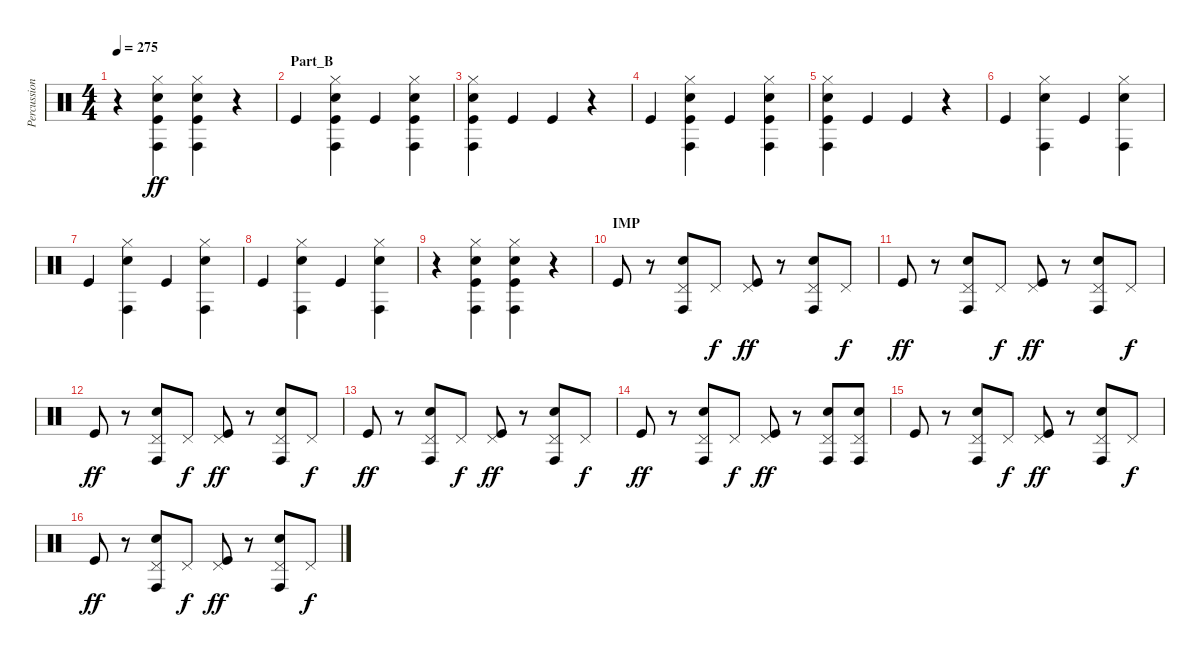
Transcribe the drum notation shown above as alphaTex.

\track ("Percussion" "Percussion") {instrument percussion}
\staff {score}
\articulation defaults
\ts (4 4)
\tempo 275
\clef neutral
\ks c
r.4{dy ff} ("Hi-Hat (closed)" "Conga high (hit)" "Electric Snare (hit)" "Kick (hit)").4 ("Hi-Hat (closed)" "Conga high (hit)" "Electric Snare (hit)" "Kick (hit)").4 r.4 |
\section ("" "Part_B")
"Kick (hit)".4 ("Hi-Hat (closed)" "Conga high (hit)" "Electric Snare (hit)" "Kick (hit)").4 "Kick (hit)".4 ("Hi-Hat (closed)" "Conga high (hit)" "Electric Snare (hit)" "Kick (hit)").4 |
("Hi-Hat (closed)" "Conga high (hit)" "Electric Snare (hit)" "Kick (hit)").4 "Kick (hit)".4 "Kick (hit)".4 r.4 |
"Kick (hit)".4 ("Hi-Hat (closed)" "Conga high (hit)" "Electric Snare (hit)" "Kick (hit)").4 "Kick (hit)".4 ("Hi-Hat (closed)" "Conga high (hit)" "Electric Snare (hit)" "Kick (hit)").4 |
("Hi-Hat (closed)" "Conga high (hit)" "Electric Snare (hit)" "Kick (hit)").4 "Kick (hit)".4 "Kick (hit)".4 r.4 |
"Kick (hit)".4 ("Hi-Hat (closed)" "Conga high (hit)" "Electric Snare (hit)").4 "Kick (hit)".4 ("Hi-Hat (closed)" "Conga high (hit)" "Electric Snare (hit)").4 |
"Kick (hit)".4 ("Hi-Hat (closed)" "Conga high (hit)" "Electric Snare (hit)").4 "Kick (hit)".4 ("Hi-Hat (closed)" "Conga high (hit)" "Electric Snare (hit)").4 |
"Kick (hit)".4 ("Hi-Hat (closed)" "Conga high (hit)" "Electric Snare (hit)").4 "Kick (hit)".4 ("Hi-Hat (closed)" "Conga high (hit)" "Electric Snare (hit)").4 |
r.4 ("Hi-Hat (closed)" "Conga high (hit)" "Electric Snare (hit)" "Kick (hit)").4 ("Hi-Hat (closed)" "Conga high (hit)" "Electric Snare (hit)" "Kick (hit)").4 r.4 |
\section ("" "IMP")
"Kick (hit)".8 r.8 ("Pedal Hi-Hat (hit)" "Conga high (hit)" "Electric Snare (hit)").8 "Pedal Hi-Hat (hit)".8{dy f} ("Pedal Hi-Hat (hit)" "Kick (hit)").8{dy ff} r.8 ("Pedal Hi-Hat (hit)" "Conga high (hit)" "Electric Snare (hit)").8 "Pedal Hi-Hat (hit)".8{dy f} |
"Kick (hit)".8{dy ff} r.8 ("Pedal Hi-Hat (hit)" "Conga high (hit)" "Electric Snare (hit)").8 "Pedal Hi-Hat (hit)".8{dy f} ("Pedal Hi-Hat (hit)" "Kick (hit)").8{dy ff} r.8 ("Pedal Hi-Hat (hit)" "Conga high (hit)" "Electric Snare (hit)").8 "Pedal Hi-Hat (hit)".8{dy f} |
"Kick (hit)".8{dy ff} r.8 ("Pedal Hi-Hat (hit)" "Conga high (hit)" "Electric Snare (hit)").8 "Pedal Hi-Hat (hit)".8{dy f} ("Pedal Hi-Hat (hit)" "Kick (hit)").8{dy ff} r.8 ("Pedal Hi-Hat (hit)" "Conga high (hit)" "Electric Snare (hit)").8 "Pedal Hi-Hat (hit)".8{dy f} |
"Kick (hit)".8{dy ff} r.8 ("Pedal Hi-Hat (hit)" "Conga high (hit)" "Electric Snare (hit)").8 "Pedal Hi-Hat (hit)".8{dy f} ("Pedal Hi-Hat (hit)" "Kick (hit)").8{dy ff} r.8 ("Pedal Hi-Hat (hit)" "Conga high (hit)" "Electric Snare (hit)").8 "Pedal Hi-Hat (hit)".8{dy f} |
"Kick (hit)".8{dy ff} r.8 ("Pedal Hi-Hat (hit)" "Conga high (hit)" "Electric Snare (hit)").8 "Pedal Hi-Hat (hit)".8{dy f} ("Pedal Hi-Hat (hit)" "Kick (hit)").8{dy ff} r.8 ("Pedal Hi-Hat (hit)" "Conga high (hit)" "Electric Snare (hit)").8 ("Pedal Hi-Hat (hit)" "Conga high (hit)" "Electric Snare (hit)").8 |
"Kick (hit)".8 r.8 ("Pedal Hi-Hat (hit)" "Conga high (hit)" "Electric Snare (hit)").8 "Pedal Hi-Hat (hit)".8{dy f} ("Pedal Hi-Hat (hit)" "Kick (hit)").8{dy ff} r.8 ("Pedal Hi-Hat (hit)" "Conga high (hit)" "Electric Snare (hit)").8 "Pedal Hi-Hat (hit)".8{dy f} |
"Kick (hit)".8{dy ff} r.8 ("Pedal Hi-Hat (hit)" "Conga high (hit)" "Electric Snare (hit)").8 "Pedal Hi-Hat (hit)".8{dy f} ("Pedal Hi-Hat (hit)" "Kick (hit)").8{dy ff} r.8 ("Pedal Hi-Hat (hit)" "Conga high (hit)" "Electric Snare (hit)").8 "Pedal Hi-Hat (hit)".8{dy f}
